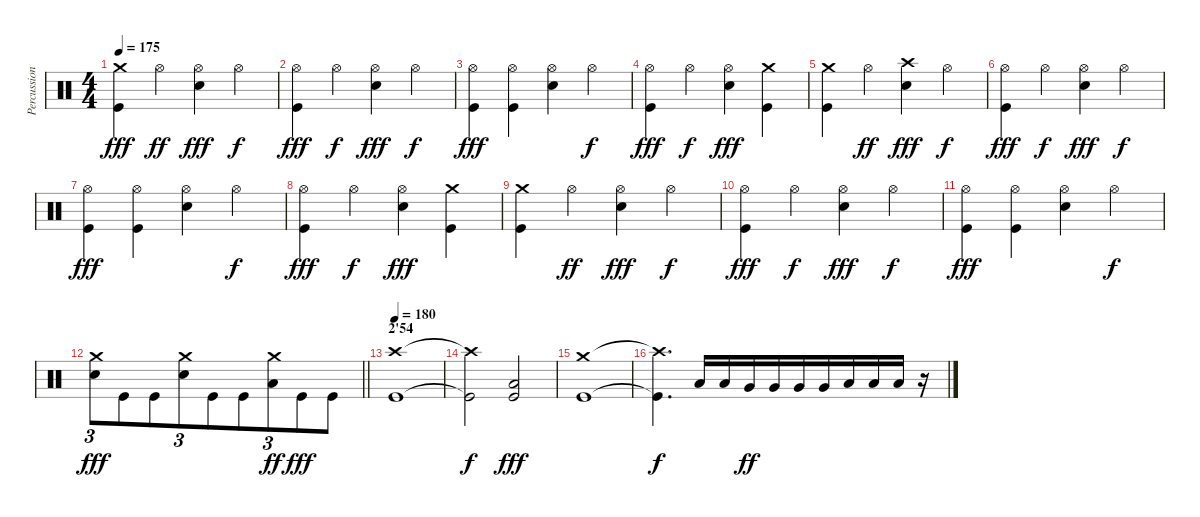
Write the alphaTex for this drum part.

\track ("Percussions" "Percussion") {instrument percussion}
\staff {score}
\articulation defaults
\ts (4 4)
\tempo 175
\clef neutral
\ks c
("Crash medium (hit)" "Kick (hit)").4{dy fff} "Hi-Hat (open)".4{dy ff} ("Hi-Hat (open)" "Electric Snare (hit)").4{dy fff} "Hi-Hat (open)".4{dy f} |
("Hi-Hat (open)" "Kick (hit)").4{dy fff} "Hi-Hat (open)".4{dy f} ("Hi-Hat (open)" "Electric Snare (hit)").4{dy fff} "Hi-Hat (open)".4{dy f} |
("Hi-Hat (open)" "Kick (hit)").4{dy fff} ("Hi-Hat (open)" "Kick (hit)").4 ("Hi-Hat (open)" "Electric Snare (hit)").4 "Hi-Hat (open)".4{dy f} |
("Hi-Hat (open)" "Kick (hit)").4{dy fff} "Hi-Hat (open)".4{dy f} ("Hi-Hat (open)" "Electric Snare (hit)").4{dy fff} ("Crash medium (hit)" "Kick (hit)").4 |
("Crash medium (hit)" "Kick (hit)").4 "Hi-Hat (open)".4{dy ff} ("Crash high (hit)" "Electric Snare (hit)").4{dy fff} "Hi-Hat (open)".4{dy f} |
("Hi-Hat (open)" "Kick (hit)").4{dy fff} "Hi-Hat (open)".4{dy f} ("Hi-Hat (open)" "Electric Snare (hit)").4{dy fff} "Hi-Hat (open)".4{dy f} |
("Hi-Hat (open)" "Kick (hit)").4{dy fff} ("Hi-Hat (open)" "Kick (hit)").4 ("Hi-Hat (open)" "Electric Snare (hit)").4 "Hi-Hat (open)".4{dy f} |
("Hi-Hat (open)" "Kick (hit)").4{dy fff} "Hi-Hat (open)".4{dy f} ("Hi-Hat (open)" "Electric Snare (hit)").4{dy fff} ("Crash medium (hit)" "Kick (hit)").4 |
("Crash medium (hit)" "Kick (hit)").4 "Hi-Hat (open)".4{dy ff} ("Hi-Hat (open)" "Electric Snare (hit)").4{dy fff} "Hi-Hat (open)".4{dy f} |
("Hi-Hat (open)" "Kick (hit)").4{dy fff} "Hi-Hat (open)".4{dy f} ("Hi-Hat (open)" "Electric Snare (hit)").4{dy fff} "Hi-Hat (open)".4{dy f} |
("Hi-Hat (open)" "Kick (hit)").4{dy fff} ("Hi-Hat (open)" "Kick (hit)").4 ("Hi-Hat (open)" "Electric Snare (hit)").4 "Hi-Hat (open)".4{dy f} |
\barLineRight lightlight
("Crash medium (hit)" "Electric Snare (hit)").8{tu (3 2) dy fff beam merge} "Kick (hit)".8{beam merge} "Kick (hit)".8{beam merge} ("Crash medium (hit)" "Electric Snare (hit)").8{tu (3 2) beam merge} "Kick (hit)".8{beam merge} "Kick (hit)".8{beam merge} ("Crash medium (hit)" "Low Floor Tom (hit)").8{tu (3 2) dy ff beam merge} "Kick (hit)".8{dy fff beam merge} "Kick (hit)".8 |
\section ("" "2'54")
\tempo 180
("Crash high (hit)" "Kick (hit)").1 |
("Crash high (hit)"{t} "Kick (hit)"{t}).2{dy f} ("Low Floor Tom (hit)" "Kick (hit)").2{dy fff} |
("Crash medium (hit)" "Kick (hit)").1 |
("Crash high (hit)"{t} "Kick (hit)"{t}).4{d dy f} "Low Floor Tom (hit)".16 "Low Floor Tom (hit)".16{beam merge} "Very Low Tom (hit)".16{dy ff} "Very Low Tom (hit)".16 "Very Low Tom (hit)".16 "Very Low Tom (hit)".16{beam merge} "Low Floor Tom (hit)".16 "Low Floor Tom (hit)".16 "Low Floor Tom (hit)".16 r.16
